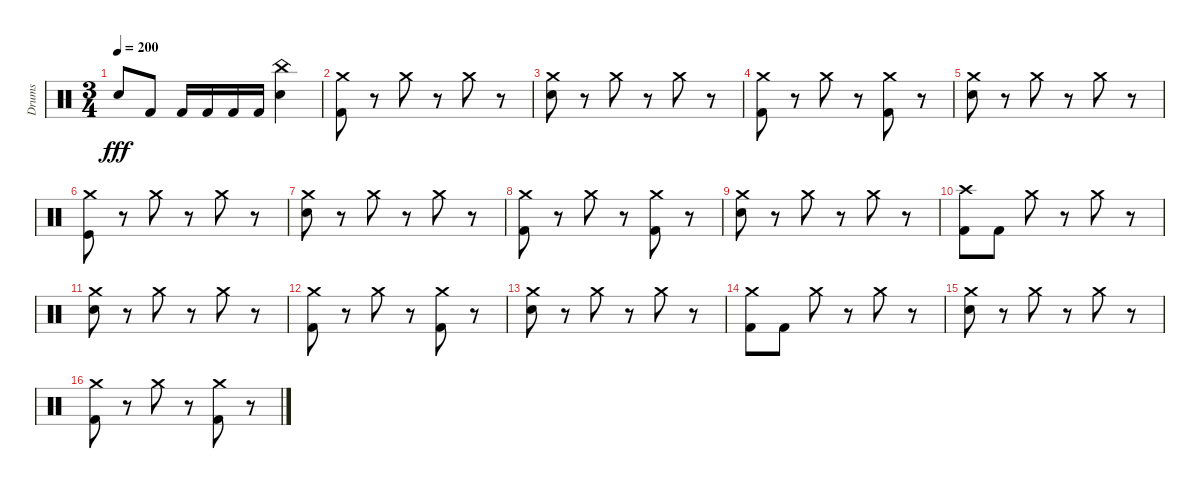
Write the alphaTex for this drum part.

\track ("Drums" "Drums") {instrument percussion}
\staff {score}
\articulation defaults
\ts (3 4)
\tempo 200
\clef neutral
\ks c "Snare (hit) 2".8{dy fff} "Kick (hit) 2".8 "Kick (hit) 2".16 "Kick (hit) 2".16 "Kick (hit) 2".16 "Kick (hit) 2".16
("China (hit)" "Snare (hit) 2").4 |
("Crash medium (hit)" "Kick (hit) 2").8 r.8 "Crash medium (hit)".8 r.8 "Crash medium (hit)".8 r.8 |
("Crash medium (hit)" "Snare (hit) 2").8 r.8 "Crash medium (hit)".8 r.8 "Crash medium (hit)".8 r.8 |
("Crash medium (hit)" "Kick (hit) 2").8 r.8 "Crash medium (hit)".8 r.8 ("Crash medium (hit)" "Kick (hit) 2").8 r.8 |
("Crash medium (hit)" "Snare (hit) 2").8 r.8 "Crash medium (hit)".8 r.8 "Crash medium (hit)".8 r.8 |
("Crash medium (hit)" "Kick (hit)").8 r.8 "Crash medium (hit)".8 r.8 "Crash medium (hit)".8 r.8 |
("Crash medium (hit)" "Snare (hit) 2").8 r.8 "Crash medium (hit)".8 r.8 "Crash medium (hit)".8 r.8 |
("Crash medium (hit)" "Kick (hit) 2").8 r.8 "Crash medium (hit)".8 r.8 ("Crash medium (hit)" "Kick (hit) 2").8 r.8 |
("Crash medium (hit)" "Snare (hit) 2").8 r.8 "Crash medium (hit)".8 r.8 "Crash medium (hit)".8 r.8 |
("Crash high (hit)" "Kick (hit) 2").8 "Kick (hit) 2".8 "Crash medium (hit)".8 r.8 "Crash medium (hit)".8 r.8 |
("Crash medium (hit)" "Snare (hit) 2").8 r.8 "Crash medium (hit)".8 r.8 "Crash medium (hit)".8 r.8 |
("Crash medium (hit)" "Kick (hit) 2").8 r.8 "Crash medium (hit)".8 r.8 ("Crash medium (hit)" "Kick (hit) 2").8 r.8 |
("Crash medium (hit)" "Snare (hit) 2").8 r.8 "Crash medium (hit)".8 r.8 "Crash medium (hit)".8 r.8 |
("Crash medium (hit)" "Kick (hit) 2").8 "Kick (hit) 2".8 "Crash medium (hit)".8 r.8 "Crash medium (hit)".8 r.8 |
("Crash medium (hit)" "Snare (hit) 2").8 r.8 "Crash medium (hit)".8 r.8 "Crash medium (hit)".8 r.8 |
("Crash medium (hit)" "Kick (hit) 2").8 r.8 "Crash medium (hit)".8 r.8 ("Crash medium (hit)" "Kick (hit) 2").8 r.8
